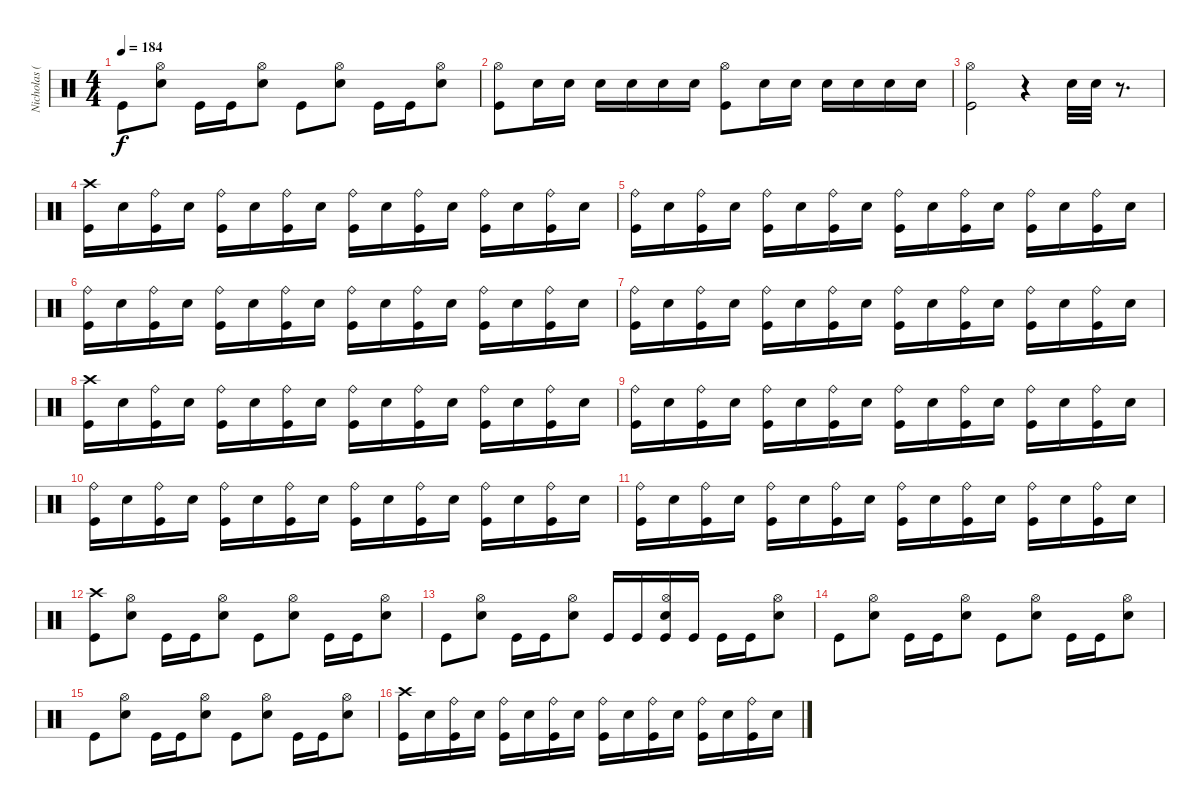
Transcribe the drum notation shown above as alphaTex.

\track ("Nicholas (Drums)" "Nicholas (") {instrument percussion}
\staff {score}
\articulation defaults
\ts (4 4)
\tempo 184
\clef neutral
\ks c "Kick (hit)".8{dy f}
("Hi-Hat (open)" "Electric Snare (hit)").8 "Kick (hit)".16 "Kick (hit)".16 ("Hi-Hat (open)" "Electric Snare (hit)").8 "Kick (hit)".8 ("Hi-Hat (open)" "Electric Snare (hit)").8 "Kick (hit)".16 "Kick (hit)".16 ("Hi-Hat (open)" "Electric Snare (hit)").8 |
("Hi-Hat (open)" "Kick (hit)").8 "Electric Snare (hit)".16 "Electric Snare (hit)".16 "Electric Snare (hit)".16 "Electric Snare (hit)".16 "Electric Snare (hit)".16 "Electric Snare (hit)".16 ("Hi-Hat (open)" "Kick (hit)").8 "Electric Snare (hit)".16 "Electric Snare (hit)".16 "Electric Snare (hit)".16 "Electric Snare (hit)".16 "Electric Snare (hit)".16 "Electric Snare (hit)".16 |
("Hi-Hat (open)" "Kick (hit)").2 r.4 "Electric Snare (hit)".32 "Electric Snare (hit)".32 r.8{d} |
("Crash high (hit)" "Kick (hit)").16 "Electric Snare (hit)".16 ("Ride (bell)" "Kick (hit)").16 "Electric Snare (hit)".16 ("Ride (bell)" "Kick (hit)").16 "Electric Snare (hit)".16 ("Ride (bell)" "Kick (hit)").16 "Electric Snare (hit)".16 ("Ride (bell)" "Kick (hit)").16 "Electric Snare (hit)".16 ("Ride (bell)" "Kick (hit)").16 "Electric Snare (hit)".16 ("Ride (bell)" "Kick (hit)").16 "Electric Snare (hit)".16 ("Ride (bell)" "Kick (hit)").16 "Electric Snare (hit)".16 |
("Ride (bell)" "Kick (hit)").16 "Electric Snare (hit)".16 ("Ride (bell)" "Kick (hit)").16 "Electric Snare (hit)".16 ("Ride (bell)" "Kick (hit)").16 "Electric Snare (hit)".16 ("Ride (bell)" "Kick (hit)").16 "Electric Snare (hit)".16 ("Ride (bell)" "Kick (hit)").16 "Electric Snare (hit)".16 ("Ride (bell)" "Kick (hit)").16 "Electric Snare (hit)".16 ("Ride (bell)" "Kick (hit)").16 "Electric Snare (hit)".16 ("Ride (bell)" "Kick (hit)").16 "Electric Snare (hit)".16 |
("Ride (bell)" "Kick (hit)").16 "Electric Snare (hit)".16 ("Ride (bell)" "Kick (hit)").16 "Electric Snare (hit)".16 ("Ride (bell)" "Kick (hit)").16 "Electric Snare (hit)".16 ("Ride (bell)" "Kick (hit)").16 "Electric Snare (hit)".16 ("Ride (bell)" "Kick (hit)").16 "Electric Snare (hit)".16 ("Ride (bell)" "Kick (hit)").16 "Electric Snare (hit)".16 ("Ride (bell)" "Kick (hit)").16 "Electric Snare (hit)".16 ("Ride (bell)" "Kick (hit)").16 "Electric Snare (hit)".16 |
("Ride (bell)" "Kick (hit)").16 "Electric Snare (hit)".16 ("Ride (bell)" "Kick (hit)").16 "Electric Snare (hit)".16 ("Ride (bell)" "Kick (hit)").16 "Electric Snare (hit)".16 ("Ride (bell)" "Kick (hit)").16 "Electric Snare (hit)".16 ("Ride (bell)" "Kick (hit)").16 "Electric Snare (hit)".16 ("Ride (bell)" "Kick (hit)").16 "Electric Snare (hit)".16 ("Ride (bell)" "Kick (hit)").16 "Electric Snare (hit)".16 ("Ride (bell)" "Kick (hit)").16 "Electric Snare (hit)".16 |
("Crash high (hit)" "Kick (hit)").16 "Electric Snare (hit)".16 ("Ride (bell)" "Kick (hit)").16 "Electric Snare (hit)".16 ("Ride (bell)" "Kick (hit)").16 "Electric Snare (hit)".16 ("Ride (bell)" "Kick (hit)").16 "Electric Snare (hit)".16 ("Ride (bell)" "Kick (hit)").16 "Electric Snare (hit)".16 ("Ride (bell)" "Kick (hit)").16 "Electric Snare (hit)".16 ("Ride (bell)" "Kick (hit)").16 "Electric Snare (hit)".16 ("Ride (bell)" "Kick (hit)").16 "Electric Snare (hit)".16 |
("Ride (bell)" "Kick (hit)").16 "Electric Snare (hit)".16 ("Ride (bell)" "Kick (hit)").16 "Electric Snare (hit)".16 ("Ride (bell)" "Kick (hit)").16 "Electric Snare (hit)".16 ("Ride (bell)" "Kick (hit)").16 "Electric Snare (hit)".16 ("Ride (bell)" "Kick (hit)").16 "Electric Snare (hit)".16 ("Ride (bell)" "Kick (hit)").16 "Electric Snare (hit)".16 ("Ride (bell)" "Kick (hit)").16 "Electric Snare (hit)".16 ("Ride (bell)" "Kick (hit)").16 "Electric Snare (hit)".16 |
("Ride (bell)" "Kick (hit)").16 "Electric Snare (hit)".16 ("Ride (bell)" "Kick (hit)").16 "Electric Snare (hit)".16 ("Ride (bell)" "Kick (hit)").16 "Electric Snare (hit)".16 ("Ride (bell)" "Kick (hit)").16 "Electric Snare (hit)".16 ("Ride (bell)" "Kick (hit)").16 "Electric Snare (hit)".16 ("Ride (bell)" "Kick (hit)").16 "Electric Snare (hit)".16 ("Ride (bell)" "Kick (hit)").16 "Electric Snare (hit)".16 ("Ride (bell)" "Kick (hit)").16 "Electric Snare (hit)".16 |
("Ride (bell)" "Kick (hit)").16 "Electric Snare (hit)".16 ("Ride (bell)" "Kick (hit)").16 "Electric Snare (hit)".16 ("Ride (bell)" "Kick (hit)").16 "Electric Snare (hit)".16 ("Ride (bell)" "Kick (hit)").16 "Electric Snare (hit)".16 ("Ride (bell)" "Kick (hit)").16 "Electric Snare (hit)".16 ("Ride (bell)" "Kick (hit)").16 "Electric Snare (hit)".16 ("Ride (bell)" "Kick (hit)").16 "Electric Snare (hit)".16 ("Ride (bell)" "Kick (hit)").16 "Electric Snare (hit)".16 |
("Crash high (hit)" "Kick (hit)").8 ("Hi-Hat (open)" "Electric Snare (hit)").8 "Kick (hit)".16 "Kick (hit)".16 ("Hi-Hat (open)" "Electric Snare (hit)").8 "Kick (hit)".8 ("Hi-Hat (open)" "Electric Snare (hit)").8 "Kick (hit)".16 "Kick (hit)".16 ("Hi-Hat (open)" "Electric Snare (hit)").8 |
"Kick (hit)".8 ("Hi-Hat (open)" "Electric Snare (hit)").8 "Kick (hit)".16 "Kick (hit)".16 ("Hi-Hat (open)" "Electric Snare (hit)").8 "Kick (hit)".16 "Kick (hit)".16 ("Hi-Hat (open)" "Electric Snare (hit)" "Kick (hit)").16 "Kick (hit)".16 "Kick (hit)".16 "Kick (hit)".16 ("Hi-Hat (open)" "Electric Snare (hit)").8 |
"Kick (hit)".8 ("Hi-Hat (open)" "Electric Snare (hit)").8 "Kick (hit)".16 "Kick (hit)".16 ("Hi-Hat (open)" "Electric Snare (hit)").8 "Kick (hit)".8 ("Hi-Hat (open)" "Electric Snare (hit)").8 "Kick (hit)".16 "Kick (hit)".16 ("Hi-Hat (open)" "Electric Snare (hit)").8 |
"Kick (hit)".8 ("Hi-Hat (open)" "Electric Snare (hit)").8 "Kick (hit)".16 "Kick (hit)".16 ("Hi-Hat (open)" "Electric Snare (hit)").8 "Kick (hit)".8 ("Hi-Hat (open)" "Electric Snare (hit)").8 "Kick (hit)".16 "Kick (hit)".16 ("Hi-Hat (open)" "Electric Snare (hit)").8 |
("Crash high (hit)" "Kick (hit)").16 "Electric Snare (hit)".16 ("Ride (bell)" "Kick (hit)").16 "Electric Snare (hit)".16 ("Ride (bell)" "Kick (hit)").16 "Electric Snare (hit)".16 ("Ride (bell)" "Kick (hit)").16 "Electric Snare (hit)".16 ("Ride (bell)" "Kick (hit)").16 "Electric Snare (hit)".16 ("Ride (bell)" "Kick (hit)").16 "Electric Snare (hit)".16 ("Ride (bell)" "Kick (hit)").16 "Electric Snare (hit)".16 ("Ride (bell)" "Kick (hit)").16 "Electric Snare (hit)".16
